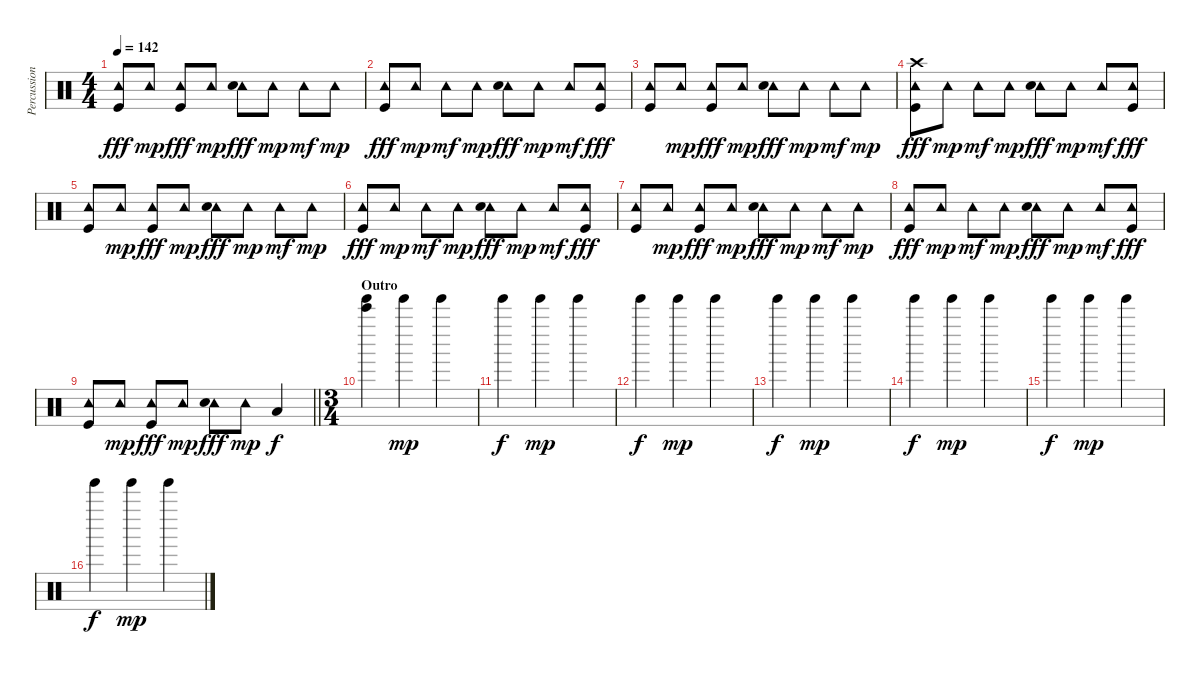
\track ("Percussion" "Percussion") {instrument percussion}
\staff {score}
\articulation defaults
\ts (4 4)
\tempo 142
\clef neutral
\ks c
("Tambourine (hit)" "Kick (hit)").8{dy fff} "Tambourine (hit)".8{dy mp} ("Tambourine (hit)" "Kick (hit)").8{dy fff} "Tambourine (hit)".8{dy mp} ("Tambourine (hit)" "Electric Snare (hit)").8{dy fff} "Tambourine (hit)".8{dy mp} "Tambourine (hit)".8{dy mf} "Tambourine (hit)".8{dy mp} |
("Tambourine (hit)" "Kick (hit)").8{dy fff} "Tambourine (hit)".8{dy mp} "Tambourine (hit)".8{dy mf} "Tambourine (hit)".8{dy mp} ("Tambourine (hit)" "Electric Snare (hit)").8{dy fff} "Tambourine (hit)".8{dy mp} "Tambourine (hit)".8{dy mf} ("Tambourine (hit)" "Kick (hit)").8{dy fff} |
("Tambourine (hit)" "Kick (hit)").8 "Tambourine (hit)".8{dy mp} ("Tambourine (hit)" "Kick (hit)").8{dy fff} "Tambourine (hit)".8{dy mp} ("Tambourine (hit)" "Electric Snare (hit)").8{dy fff} "Tambourine (hit)".8{dy mp} "Tambourine (hit)".8{dy mf} "Tambourine (hit)".8{dy mp} |
("Crash high (hit)" "Tambourine (hit)" "Kick (hit)").8{dy fff} "Tambourine (hit)".8{dy mp} "Tambourine (hit)".8{dy mf} "Tambourine (hit)".8{dy mp} ("Tambourine (hit)" "Electric Snare (hit)").8{dy fff} "Tambourine (hit)".8{dy mp} "Tambourine (hit)".8{dy mf} ("Tambourine (hit)" "Kick (hit)").8{dy fff} |
("Tambourine (hit)" "Kick (hit)").8 "Tambourine (hit)".8{dy mp} ("Tambourine (hit)" "Kick (hit)").8{dy fff} "Tambourine (hit)".8{dy mp} ("Tambourine (hit)" "Electric Snare (hit)").8{dy fff} "Tambourine (hit)".8{dy mp} "Tambourine (hit)".8{dy mf} "Tambourine (hit)".8{dy mp} |
("Tambourine (hit)" "Kick (hit)").8{dy fff} "Tambourine (hit)".8{dy mp} "Tambourine (hit)".8{dy mf} "Tambourine (hit)".8{dy mp} ("Tambourine (hit)" "Electric Snare (hit)").8{dy fff} "Tambourine (hit)".8{dy mp} "Tambourine (hit)".8{dy mf} ("Tambourine (hit)" "Kick (hit)").8{dy fff} |
("Tambourine (hit)" "Kick (hit)").8 "Tambourine (hit)".8{dy mp} ("Tambourine (hit)" "Kick (hit)").8{dy fff} "Tambourine (hit)".8{dy mp} ("Tambourine (hit)" "Electric Snare (hit)").8{dy fff} "Tambourine (hit)".8{dy mp} "Tambourine (hit)".8{dy mf} "Tambourine (hit)".8{dy mp} |
("Tambourine (hit)" "Kick (hit)").8{dy fff} "Tambourine (hit)".8{dy mp} "Tambourine (hit)".8{dy mf} "Tambourine (hit)".8{dy mp} ("Tambourine (hit)" "Electric Snare (hit)").8{dy fff} "Tambourine (hit)".8{dy mp} "Tambourine (hit)".8{dy mf} ("Tambourine (hit)" "Kick (hit)").8{dy fff} |
\barLineRight lightlight
("Tambourine (hit)" "Kick (hit)").8 "Tambourine (hit)".8{dy mp} ("Tambourine (hit)" "Kick (hit)").8{dy fff} "Tambourine (hit)".8{dy mp} ("Tambourine (hit)" "Electric Snare (hit)").8{dy fff} "Tambourine (hit)".8{dy mp} "Low Floor Tom (hit)".4{dy f} |
\ts (3 4)
\section ("" "Outro")
("Bell Tree (hit)" "Tinkle Bell (hit)").4{volume 10} "Tinkle Bell (hit)".4{dy mp} "Tinkle Bell (hit)".4 |
"Tinkle Bell (hit)".4{dy f} "Tinkle Bell (hit)".4{dy mp} "Tinkle Bell (hit)".4 |
"Tinkle Bell (hit)".4{dy f} "Tinkle Bell (hit)".4{dy mp} "Tinkle Bell (hit)".4 |
"Tinkle Bell (hit)".4{dy f} "Tinkle Bell (hit)".4{dy mp} "Tinkle Bell (hit)".4 |
"Tinkle Bell (hit)".4{dy f} "Tinkle Bell (hit)".4{dy mp} "Tinkle Bell (hit)".4 |
"Tinkle Bell (hit)".4{dy f} "Tinkle Bell (hit)".4{dy mp} "Tinkle Bell (hit)".4 |
"Tinkle Bell (hit)".4{dy f} "Tinkle Bell (hit)".4{dy mp} "Tinkle Bell (hit)".4
